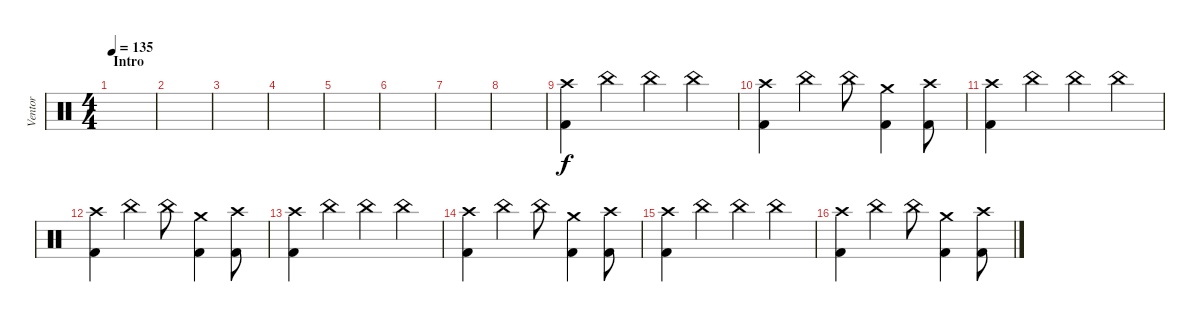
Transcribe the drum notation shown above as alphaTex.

\track ("Ventor" "Ventor") {instrument percussion}
\staff {score}
\articulation defaults
\ts (4 4)
\section ("" "Intro")
\tempo 135
\clef neutral
\ks c
|
|
|
|
|
|
|
|
("Crash high (hit)" "Kick (hit) 2").4 "China (hit)".4 "China (hit)".4 "China (hit)".4 |
("Crash high (hit)" "Kick (hit) 2").4 "China (hit)".4 "China (hit)".8 ("Crash medium (hit)" "Kick (hit) 2").4 ("Crash high (hit)" "Kick (hit) 2").8 |
("Crash high (hit)" "Kick (hit) 2").4 "China (hit)".4 "China (hit)".4 "China (hit)".4 |
("Crash high (hit)" "Kick (hit) 2").4 "China (hit)".4 "China (hit)".8 ("Crash medium (hit)" "Kick (hit) 2").4 ("Crash high (hit)" "Kick (hit) 2").8 |
("Crash high (hit)" "Kick (hit) 2").4 "China (hit)".4 "China (hit)".4 "China (hit)".4 |
("Crash high (hit)" "Kick (hit) 2").4 "China (hit)".4 "China (hit)".8 ("Crash medium (hit)" "Kick (hit) 2").4 ("Crash high (hit)" "Kick (hit) 2").8 |
("Crash high (hit)" "Kick (hit) 2").4 "China (hit)".4 "China (hit)".4 "China (hit)".4 |
("Crash high (hit)" "Kick (hit) 2").4 "China (hit)".4 "China (hit)".8 ("Crash medium (hit)" "Kick (hit) 2").4 ("Crash high (hit)" "Kick (hit) 2").8
